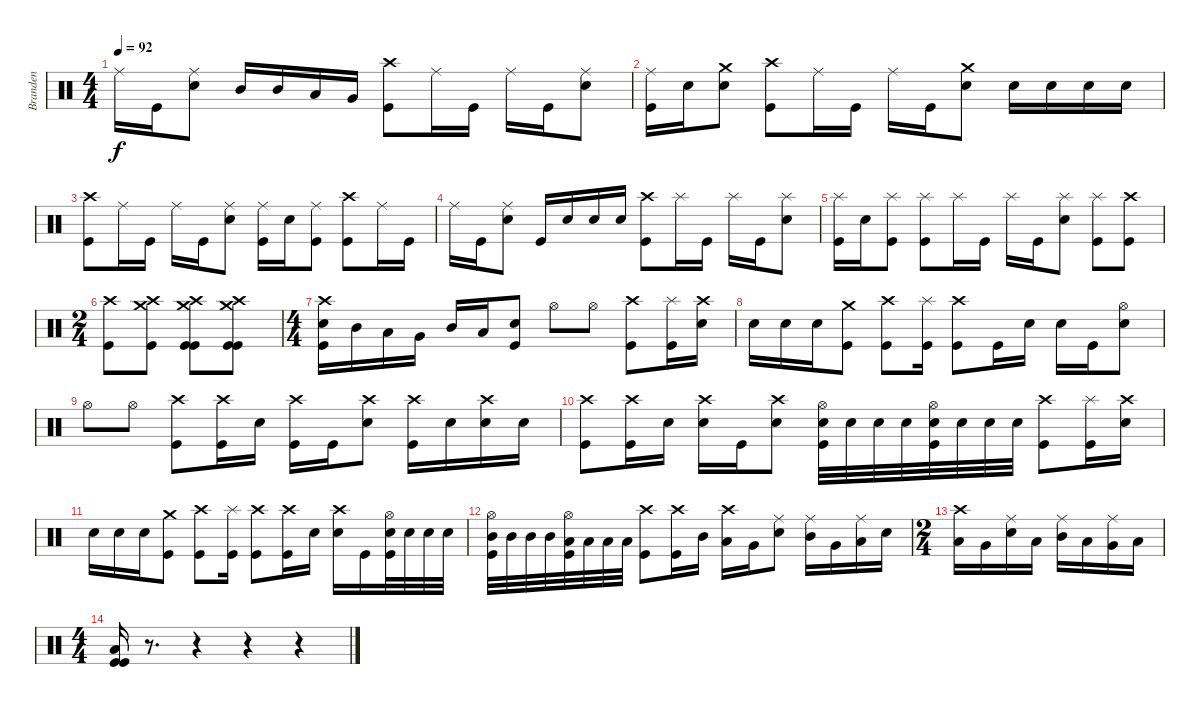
\track ("Branden" "Branden") {instrument percussion}
\staff {score}
\articulation defaults
\ts (4 4)
\tempo 92
\clef neutral
\ks c "Ride (middle)".16{dy f} "Kick (hit)".16
("Ride (middle)" "Snare (hit) 2").8 "Mid Tom (hit)".16 "Mid Tom (hit)".16 "Low Tom (hit)".16 "Very Low Tom (hit)".16 ("Crash high (hit)" "Kick (hit)").8 "Ride (middle)".16 "Kick (hit)".16 "Ride (middle)".16 "Kick (hit)".16 ("Ride (middle)" "Snare (hit) 2").8 |
("Ride (middle)" "Kick (hit)").16 "Snare (hit) 2".16 ("Crash medium (hit)" "Snare (hit) 2").8 ("Crash high (hit)" "Kick (hit)").8 "Ride (middle)".16 "Kick (hit)".16 "Ride (middle)".16 "Kick (hit)".16 ("Crash medium (hit)" "Snare (hit) 2").8 "Snare (hit) 2".16 "Snare (hit) 2".16 "Snare (hit) 2".16 "Snare (hit) 2".16 |
("Crash high (hit)" "Kick (hit)").8 "Ride (middle)".16 "Kick (hit)".16 "Ride (middle)".16 "Kick (hit)".16 ("Ride (middle)" "Snare (hit) 2").8 ("Ride (middle)" "Kick (hit)").16 "Snare (hit) 2".16 ("Ride (middle)" "Kick (hit)").8 ("Crash high (hit)" "Kick (hit)").8 "Ride (middle)".16 "Kick (hit)".16 |
"Ride (middle)".16 "Kick (hit)".16 ("Ride (middle)" "Snare (hit) 2").8 "Kick (hit)".16 "Snare (hit) 2".16 "Snare (hit) 2".16 "Snare (hit) 2".16 ("Crash high (hit)" "Kick (hit)").8 "Splash (hit)".16 "Kick (hit)".16 "Splash (hit)".16 "Kick (hit)".16 ("Splash (hit)" "Snare (hit) 2").8 |
("Splash (hit)" "Kick (hit)").16 "Snare (hit) 2".16 ("Splash (hit)" "Kick (hit)").8 ("Splash (hit)" "Kick (hit)").8 "Splash (hit)".16 "Kick (hit)".16 "Splash (hit)".16 "Kick (hit)".16 ("Splash (hit)" "Snare (hit) 2").8 ("Splash (hit)" "Kick (hit)").8 ("Crash high (hit)" "Kick (hit)").8 |
\ts (2 4)
("Crash high (hit)" "Kick (hit)").8 ("Crash high (hit)" "Crash medium (hit)" "Kick (hit)").8 ("Crash high (hit)" "Crash medium (hit)" "Kick (hit)" "Kick (hit)").8 ("Crash high (hit)" "Crash medium (hit)" "Kick (hit)" "Kick (hit)").8 |
\ts (4 4)
("Crash high (hit)" "Snare (hit) 2" "Kick (hit)").16 "Mid Tom (hit)".16 "Low Tom (hit)".16 "Very Low Tom (hit)".16 "Mid Tom (hit)".16 "Low Tom (hit)".16 ("Snare (hit) 2" "Kick (hit)").8 "Hi-Hat (open)".8 "Hi-Hat (open)".8 ("Crash high (hit)" "Kick (hit)").8 ("Splash (hit)" "Kick (hit)").16 ("Crash high (hit)" "Snare (hit) 2").16 |
"Snare (hit) 2".16 "Snare (hit) 2".16 "Snare (hit) 2".16 ("Crash medium (hit)" "Kick (hit)").8 ("Crash high (hit)" "Kick (hit)").8 ("Splash (hit)" "Kick (hit)").16 ("Crash high (hit)" "Kick (hit)").8 "Kick (hit)".16 "Snare (hit) 2".16 "Snare (hit) 2".16 "Kick (hit)".16 ("Hi-Hat (open)" "Snare (hit) 2").8 |
"Hi-Hat (open)".8 "Hi-Hat (open)".8 ("Crash high (hit)" "Kick (hit)").8 ("Crash high (hit)" "Kick (hit)").16 "Snare (hit) 2".16 ("Crash high (hit)" "Kick (hit)").16 "Kick (hit)".16 ("Crash high (hit)" "Snare (hit) 2").8 ("Crash high (hit)" "Kick (hit)").16 "Snare (hit) 2".16 ("Crash high (hit)" "Snare (hit) 2").16 "Snare (hit) 2".16 |
("Crash high (hit)" "Kick (hit)").8 ("Crash high (hit)" "Kick (hit)").16 "Snare (hit) 2".16 ("Crash high (hit)" "Snare (hit) 2").16 "Kick (hit)".16 ("Crash high (hit)" "Snare (hit) 2").8 ("Hi-Hat (open)" "Snare (hit) 2" "Kick (hit)").32 "Snare (hit) 2".32 "Snare (hit) 2".32 "Snare (hit) 2".32 ("Hi-Hat (open)" "Snare (hit) 2" "Kick (hit)").32 "Snare (hit) 2".32 "Snare (hit) 2".32 "Snare (hit) 2".32 ("Crash high (hit)" "Kick (hit)").8 ("Splash (hit)" "Kick (hit)").16 ("Crash high (hit)" "Snare (hit) 2").16 |
"Snare (hit) 2".16 "Snare (hit) 2".16 "Snare (hit) 2".16 ("Crash medium (hit)" "Kick (hit)").8 ("Crash high (hit)" "Kick (hit)").8 ("Splash (hit)" "Kick (hit)").16 ("Crash high (hit)" "Kick (hit)").8 ("Crash high (hit)" "Kick (hit)").16 "Snare (hit) 2".16 ("Crash high (hit)" "Snare (hit) 2").16 "Kick (hit)".16 ("Hi-Hat (open)" "Snare (hit) 2" "Kick (hit)").32 "Snare (hit) 2".32 "Snare (hit) 2".32 "Snare (hit) 2".32 |
("Hi-Hat (open)" "Mid Tom (hit)" "Kick (hit)").32 "Mid Tom (hit)".32 "Mid Tom (hit)".32 "Mid Tom (hit)".32 ("Hi-Hat (open)" "Low Tom (hit)" "Kick (hit)").32 "Low Tom (hit)".32 "Low Tom (hit)".32 "Low Tom (hit)".32 ("Crash high (hit)" "Kick (hit)").8 ("Crash high (hit)" "Kick (hit)").16 "Mid Tom (hit)".16 ("Crash high (hit)" "Low Tom (hit)").16 "Very Low Tom (hit)".16 ("Ride (middle)" "Snare (hit) 2").8 ("Ride (middle)" "Mid Tom (hit)").16 "Very Low Tom (hit)".16 ("Ride (middle)" "Low Tom (hit)").16 "Snare (hit) 2".16 |
\ts (2 4)
("Crash high (hit)" "Low Tom (hit)").16 "Very Low Tom (hit)".16 ("Ride (middle)" "Snare (hit) 2").16 "Low Tom (hit)".16 ("Ride (middle)" "Mid Tom (hit)").16 "Low Tom (hit)".16 ("Ride (middle)" "Very Low Tom (hit)").16 "Low Tom (hit)".16 |
\ts (4 4)
("Low Floor Tom (hit)" "Kick (hit)" "Kick (hit)").16 r.8{d} r.4 r.4 r.4
